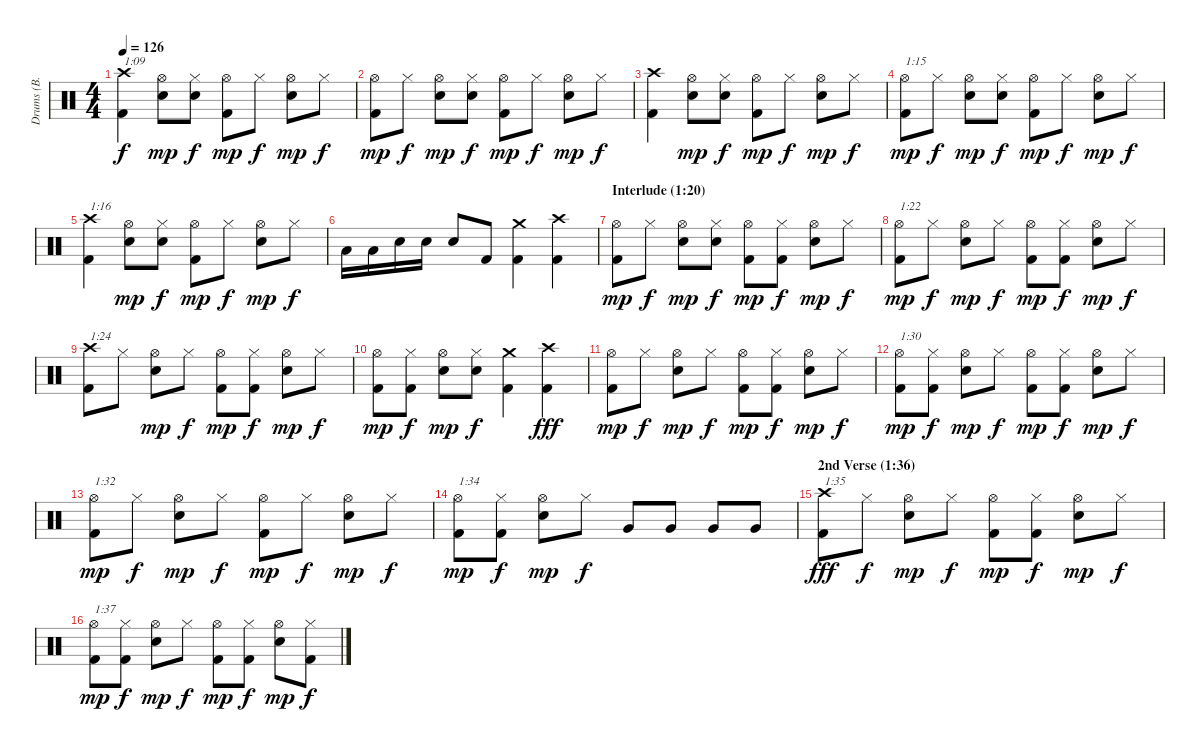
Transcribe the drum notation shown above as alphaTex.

\track ("Drums (B. Downey)" "Drums (B. ") {instrument percussion}
\staff {score}
\articulation defaults
\ts (4 4)
\tempo 126
\clef neutral
\ks c
("Crash high (hit)" "Kick (hit) 2").4{txt "1:09" dy f} ("Hi-Hat (open)" "Electric Snare (hit)").8{dy mp} ("Hi-Hat (closed)" "Electric Snare (hit)").8{dy f} ("Hi-Hat (open)" "Kick (hit) 2").8{dy mp} "Hi-Hat (closed)".8{dy f} ("Hi-Hat (open)" "Electric Snare (hit)").8{dy mp} "Hi-Hat (closed)".8{dy f} |
("Hi-Hat (open)" "Kick (hit) 2").8{dy mp} "Hi-Hat (closed)".8{dy f} ("Hi-Hat (open)" "Electric Snare (hit)").8{dy mp} ("Hi-Hat (closed)" "Electric Snare (hit)").8{dy f} ("Hi-Hat (open)" "Kick (hit) 2").8{dy mp} "Hi-Hat (closed)".8{dy f} ("Hi-Hat (open)" "Electric Snare (hit)").8{dy mp} "Hi-Hat (closed)".8{dy f} |
("Crash high (hit)" "Kick (hit) 2").4 ("Hi-Hat (open)" "Electric Snare (hit)").8{dy mp} ("Hi-Hat (closed)" "Electric Snare (hit)").8{dy f} ("Hi-Hat (open)" "Kick (hit) 2").8{dy mp} "Hi-Hat (closed)".8{dy f} ("Hi-Hat (open)" "Electric Snare (hit)").8{dy mp} "Hi-Hat (closed)".8{dy f} |
("Hi-Hat (open)" "Kick (hit) 2").8{txt "1:15" dy mp} "Hi-Hat (closed)".8{dy f} ("Hi-Hat (open)" "Electric Snare (hit)").8{dy mp} ("Hi-Hat (closed)" "Electric Snare (hit)").8{dy f} ("Hi-Hat (open)" "Kick (hit) 2").8{dy mp} "Hi-Hat (closed)".8{dy f} ("Hi-Hat (open)" "Electric Snare (hit)").8{dy mp} "Hi-Hat (closed)".8{dy f} |
("Crash high (hit)" "Kick (hit) 2").4{txt "1:16"} ("Hi-Hat (open)" "Electric Snare (hit)").8{dy mp} ("Hi-Hat (closed)" "Electric Snare (hit)").8{dy f} ("Hi-Hat (open)" "Kick (hit) 2").8{dy mp} "Hi-Hat (closed)".8{dy f} ("Hi-Hat (open)" "Electric Snare (hit)").8{dy mp} "Hi-Hat (closed)".8{dy f} |
"Low Tom (hit)".16 "Low Tom (hit)".16 "Electric Snare (hit)".16 "Electric Snare (hit)".16 "Electric Snare (hit)".8 "Kick (hit) 2".8 ("Crash medium (hit)" "Kick (hit) 2").4{balance 13} ("Crash high (hit)" "Kick (hit) 2").4{balance 3} |
\section ("" "Interlude (1:20)")
("Hi-Hat (open)" "Kick (hit) 2").8{dy mp balance 8} "Hi-Hat (closed)".8{dy f} ("Hi-Hat (open)" "Electric Snare (hit)").8{dy mp} ("Hi-Hat (closed)" "Electric Snare (hit)").8{dy f} ("Hi-Hat (open)" "Kick (hit) 2").8{dy mp} ("Hi-Hat (closed)" "Kick (hit) 2").8{dy f} ("Hi-Hat (open)" "Electric Snare (hit)").8{dy mp} "Hi-Hat (closed)".8{dy f} |
("Hi-Hat (open)" "Kick (hit) 2").8{txt "1:22" dy mp} "Hi-Hat (closed)".8{dy f} ("Hi-Hat (open)" "Electric Snare (hit)").8{dy mp} "Hi-Hat (closed)".8{dy f} ("Hi-Hat (open)" "Kick (hit) 2").8{dy mp} ("Hi-Hat (closed)" "Kick (hit) 2").8{dy f} ("Hi-Hat (open)" "Electric Snare (hit)").8{dy mp} "Hi-Hat (closed)".8{dy f} |
("Crash high (hit)" "Kick (hit) 2").8{txt "1:24"} "Hi-Hat (closed)".8 ("Hi-Hat (open)" "Electric Snare (hit)").8{dy mp} "Hi-Hat (closed)".8{dy f} ("Hi-Hat (open)" "Kick (hit) 2").8{dy mp} ("Hi-Hat (closed)" "Kick (hit) 2").8{dy f} ("Hi-Hat (open)" "Electric Snare (hit)").8{dy mp} "Hi-Hat (closed)".8{dy f} |
("Hi-Hat (open)" "Kick (hit) 2").8{dy mp} ("Hi-Hat (closed)" "Kick (hit) 2").8{dy f} ("Hi-Hat (open)" "Electric Snare (hit)").8{dy mp} ("Hi-Hat (closed)" "Electric Snare (hit)").8{dy f} ("Crash medium (hit)" "Kick (hit) 2").4 ("Crash high (hit)" "Kick (hit) 2").4{dy fff} |
("Hi-Hat (open)" "Kick (hit) 2").8{dy mp} "Hi-Hat (closed)".8{dy f} ("Hi-Hat (open)" "Electric Snare (hit)").8{dy mp} "Hi-Hat (closed)".8{dy f} ("Hi-Hat (open)" "Kick (hit) 2").8{dy mp} ("Hi-Hat (closed)" "Kick (hit) 2").8{dy f} ("Hi-Hat (open)" "Electric Snare (hit)").8{dy mp} "Hi-Hat (closed)".8{dy f} |
("Hi-Hat (open)" "Kick (hit) 2").8{txt "1:30" dy mp} ("Hi-Hat (closed)" "Kick (hit) 2").8{dy f} ("Hi-Hat (open)" "Electric Snare (hit)").8{dy mp} "Hi-Hat (closed)".8{dy f} ("Hi-Hat (open)" "Kick (hit) 2").8{dy mp} ("Hi-Hat (closed)" "Kick (hit) 2").8{dy f} ("Hi-Hat (open)" "Electric Snare (hit)").8{dy mp} "Hi-Hat (closed)".8{dy f} |
("Hi-Hat (open)" "Kick (hit) 2").8{txt "1:32" dy mp} "Hi-Hat (closed)".8{dy f} ("Hi-Hat (open)" "Electric Snare (hit)").8{dy mp} "Hi-Hat (closed)".8{dy f} ("Hi-Hat (open)" "Kick (hit) 2").8{dy mp} "Hi-Hat (closed)".8{dy f} ("Hi-Hat (open)" "Electric Snare (hit)").8{dy mp} "Hi-Hat (closed)".8{dy f} |
("Hi-Hat (open)" "Kick (hit) 2").8{txt "1:34" dy mp} ("Hi-Hat (closed)" "Kick (hit) 2").8{dy f} ("Hi-Hat (open)" "Electric Snare (hit)").8{dy mp} "Hi-Hat (closed)".8{dy f} "Very Low Tom (hit)".8 "Very Low Tom (hit)".8 "Very Low Tom (hit)".8 "Very Low Tom (hit)".8 |
\section ("" "2nd Verse (1:36)")
("Crash high (hit)" "Kick (hit) 2").8{txt "1:35" dy fff} "Hi-Hat (closed)".8{dy f} ("Hi-Hat (open)" "Electric Snare (hit)").8{dy mp} "Hi-Hat (closed)".8{dy f} ("Hi-Hat (open)" "Kick (hit) 2").8{dy mp} ("Hi-Hat (closed)" "Kick (hit) 2").8{dy f} ("Hi-Hat (open)" "Electric Snare (hit)").8{dy mp} "Hi-Hat (closed)".8{dy f} |
("Hi-Hat (open)" "Kick (hit) 2").8{txt "1:37" dy mp} ("Hi-Hat (closed)" "Kick (hit) 2").8{dy f} ("Hi-Hat (open)" "Electric Snare (hit)").8{dy mp} "Hi-Hat (closed)".8{dy f} ("Hi-Hat (open)" "Kick (hit) 2").8{dy mp} ("Hi-Hat (closed)" "Kick (hit) 2").8{dy f} ("Hi-Hat (open)" "Electric Snare (hit)").8{dy mp} ("Hi-Hat (closed)" "Kick (hit) 2").8{dy f}
